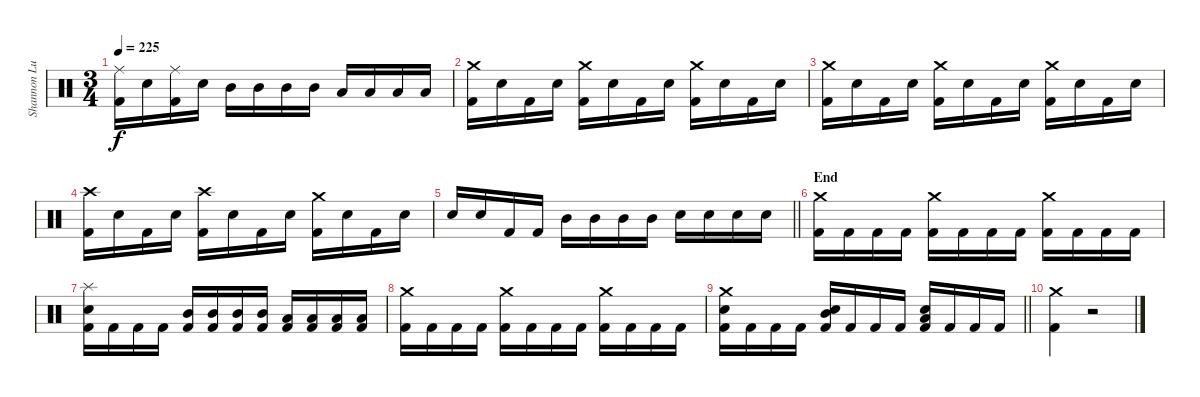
\track ("Shannon Lucas" "Shannon Lu") {instrument percussion}
\staff {score}
\articulation defaults
\ts (3 4)
\tempo 225
\clef neutral
\ks c
("Ride (middle)" "Kick (hit) 2").16{dy f} "Electric Snare (hit)".16 ("Ride (middle)" "Kick (hit) 2").16 "Electric Snare (hit)".16 "Mid Tom (hit)".16 "Mid Tom (hit)".16 "Mid Tom (hit)".16 "Mid Tom (hit)".16 "Low Tom (hit)".16 "Low Tom (hit)".16 "Low Tom (hit)".16 "Low Tom (hit)".16 |
("Crash medium (hit)" "Kick (hit) 2").16 "Electric Snare (hit)".16 "Kick (hit) 2".16 "Electric Snare (hit)".16 ("Crash medium (hit)" "Kick (hit) 2").16 "Electric Snare (hit)".16 "Kick (hit) 2".16 "Electric Snare (hit)".16 ("Crash medium (hit)" "Kick (hit) 2").16 "Electric Snare (hit)".16 "Kick (hit) 2".16 "Electric Snare (hit)".16 |
("Crash medium (hit)" "Kick (hit) 2").16 "Electric Snare (hit)".16 "Kick (hit) 2".16 "Electric Snare (hit)".16 ("Crash medium (hit)" "Kick (hit) 2").16 "Electric Snare (hit)".16 "Kick (hit) 2".16 "Electric Snare (hit)".16 ("Crash medium (hit)" "Kick (hit) 2").16 "Electric Snare (hit)".16 "Kick (hit) 2".16 "Electric Snare (hit)".16 |
("Crash high (hit)" "Kick (hit) 2").16 "Electric Snare (hit)".16 "Kick (hit) 2".16 "Electric Snare (hit)".16 ("Crash high (hit)" "Kick (hit) 2").16 "Electric Snare (hit)".16 "Kick (hit) 2".16 "Electric Snare (hit)".16 ("Crash medium (hit)" "Kick (hit) 2").16 "Electric Snare (hit)".16 "Kick (hit) 2".16 "Electric Snare (hit)".16 |
\barLineRight lightlight "Electric Snare (hit)".16 "Electric Snare (hit)".16 "Kick (hit) 2".16 "Kick (hit) 2".16 "Mid Tom (hit)".16 "Mid Tom (hit)".16 "Mid Tom (hit)".16 "Mid Tom (hit)".16 "Electric Snare (hit)".16 "Electric Snare (hit)".16 "Electric Snare (hit)".16 "Electric Snare (hit)".16
|
\section ("" "End")
("Crash medium (hit)" "Kick (hit) 2").16 "Kick (hit) 2".16 "Kick (hit) 2".16 "Kick (hit) 2".16 ("Crash medium (hit)" "Kick (hit) 2").16 "Kick (hit) 2".16 "Kick (hit) 2".16 "Kick (hit) 2".16 ("Crash medium (hit)" "Kick (hit) 2").16 "Kick (hit) 2".16 "Kick (hit) 2".16 "Kick (hit) 2".16 |
("Splash (hit)" "Electric Snare (hit)" "Kick (hit) 2").16 "Kick (hit) 2".16 "Kick (hit) 2".16 "Kick (hit) 2".16 ("Mid Tom (hit)" "Kick (hit) 2").16 ("Mid Tom (hit)" "Kick (hit) 2").16 ("Mid Tom (hit)" "Kick (hit) 2").16 ("Mid Tom (hit)" "Kick (hit) 2").16 ("Low Tom (hit)" "Kick (hit) 2").16 ("Low Tom (hit)" "Kick (hit) 2").16 ("Low Tom (hit)" "Kick (hit) 2").16 ("Low Tom (hit)" "Kick (hit) 2").16 |
("Crash medium (hit)" "Kick (hit) 2").16 "Kick (hit) 2".16 "Kick (hit) 2".16 "Kick (hit) 2".16 ("Crash medium (hit)" "Kick (hit) 2").16 "Kick (hit) 2".16 "Kick (hit) 2".16 "Kick (hit) 2".16 ("Crash medium (hit)" "Kick (hit) 2").16 "Kick (hit) 2".16 "Kick (hit) 2".16 "Kick (hit) 2".16 |
\barLineRight lightlight
("Crash medium (hit)" "Electric Snare (hit)" "Kick (hit) 2").16 "Kick (hit) 2".16 "Kick (hit) 2".16 "Kick (hit) 2".16 ("Mid Tom (hit)" "Electric Snare (hit)" "Kick (hit) 2").16 "Kick (hit) 2".16 "Kick (hit) 2".16 "Kick (hit) 2".16 ("Low Tom (hit)" "Electric Snare (hit)" "Kick (hit) 2").16 "Kick (hit) 2".16 "Kick (hit) 2".16 "Kick (hit) 2".16 |
("Crash medium (hit)" "Kick (hit) 2").4 r.2{volume 0}
